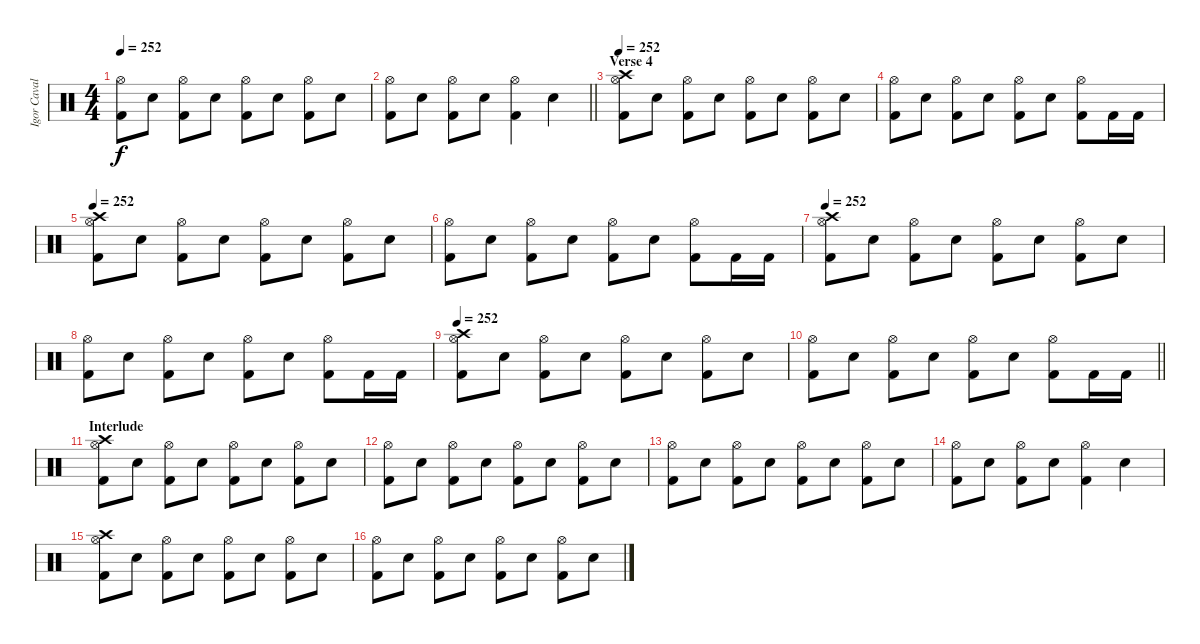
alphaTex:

\track ("Igor Cavalera" "Igor Caval") {instrument percussion}
\staff {score}
\articulation defaults
\ts (4 4)
\tempo 252
\clef neutral
\ks c
("Hi-Hat (open)" "Kick (hit) 2").8{dy f} "Electric Snare (hit)".8 ("Hi-Hat (open)" "Kick (hit) 2").8 "Electric Snare (hit)".8 ("Hi-Hat (open)" "Kick (hit) 2").8 "Electric Snare (hit)".8 ("Hi-Hat (open)" "Kick (hit) 2").8 "Electric Snare (hit)".8 |
\barLineRight lightlight
("Hi-Hat (open)" "Kick (hit) 2").8 "Electric Snare (hit)".8 ("Hi-Hat (open)" "Kick (hit) 2").8 "Electric Snare (hit)".8 ("Hi-Hat (open)" "Kick (hit) 2").4 "Electric Snare (hit)".4 |
\section ("" "Verse 4")
\tempo 252
("Crash high (hit)" "Hi-Hat (open)" "Kick (hit) 2").8 "Electric Snare (hit)".8 ("Hi-Hat (open)" "Kick (hit) 2").8 "Electric Snare (hit)".8 ("Hi-Hat (open)" "Kick (hit) 2").8 "Electric Snare (hit)".8 ("Hi-Hat (open)" "Kick (hit) 2").8 "Electric Snare (hit)".8 |
("Hi-Hat (open)" "Kick (hit) 2").8 "Electric Snare (hit)".8 ("Hi-Hat (open)" "Kick (hit) 2").8 "Electric Snare (hit)".8 ("Hi-Hat (open)" "Kick (hit) 2").8 "Electric Snare (hit)".8 ("Hi-Hat (open)" "Kick (hit) 2").8 "Kick (hit) 2".16 "Kick (hit) 2".16 |
\tempo 252
("Crash high (hit)" "Hi-Hat (open)" "Kick (hit) 2").8 "Electric Snare (hit)".8 ("Hi-Hat (open)" "Kick (hit) 2").8 "Electric Snare (hit)".8 ("Hi-Hat (open)" "Kick (hit) 2").8 "Electric Snare (hit)".8 ("Hi-Hat (open)" "Kick (hit) 2").8 "Electric Snare (hit)".8 |
("Hi-Hat (open)" "Kick (hit) 2").8 "Electric Snare (hit)".8 ("Hi-Hat (open)" "Kick (hit) 2").8 "Electric Snare (hit)".8 ("Hi-Hat (open)" "Kick (hit) 2").8 "Electric Snare (hit)".8 ("Hi-Hat (open)" "Kick (hit) 2").8 "Kick (hit) 2".16 "Kick (hit) 2".16 |
\tempo 252
("Crash high (hit)" "Hi-Hat (open)" "Kick (hit) 2").8 "Electric Snare (hit)".8 ("Hi-Hat (open)" "Kick (hit) 2").8 "Electric Snare (hit)".8 ("Hi-Hat (open)" "Kick (hit) 2").8 "Electric Snare (hit)".8 ("Hi-Hat (open)" "Kick (hit) 2").8 "Electric Snare (hit)".8 |
("Hi-Hat (open)" "Kick (hit) 2").8 "Electric Snare (hit)".8 ("Hi-Hat (open)" "Kick (hit) 2").8 "Electric Snare (hit)".8 ("Hi-Hat (open)" "Kick (hit) 2").8 "Electric Snare (hit)".8 ("Hi-Hat (open)" "Kick (hit) 2").8 "Kick (hit) 2".16 "Kick (hit) 2".16 |
\tempo 252
("Crash high (hit)" "Hi-Hat (open)" "Kick (hit) 2").8 "Electric Snare (hit)".8 ("Hi-Hat (open)" "Kick (hit) 2").8 "Electric Snare (hit)".8 ("Hi-Hat (open)" "Kick (hit) 2").8 "Electric Snare (hit)".8 ("Hi-Hat (open)" "Kick (hit) 2").8 "Electric Snare (hit)".8 |
\barLineRight lightlight
("Hi-Hat (open)" "Kick (hit) 2").8 "Electric Snare (hit)".8 ("Hi-Hat (open)" "Kick (hit) 2").8 "Electric Snare (hit)".8 ("Hi-Hat (open)" "Kick (hit) 2").8 "Electric Snare (hit)".8 ("Hi-Hat (open)" "Kick (hit) 2").8 "Kick (hit) 2".16 "Kick (hit) 2".16 |
\section ("" "Interlude")
("Crash high (hit)" "Hi-Hat (open)" "Kick (hit) 2").8 "Electric Snare (hit)".8 ("Hi-Hat (open)" "Kick (hit) 2").8 "Electric Snare (hit)".8 ("Hi-Hat (open)" "Kick (hit) 2").8 "Electric Snare (hit)".8 ("Hi-Hat (open)" "Kick (hit) 2").8 "Electric Snare (hit)".8 |
("Hi-Hat (open)" "Kick (hit) 2").8 "Electric Snare (hit)".8 ("Hi-Hat (open)" "Kick (hit) 2").8 "Electric Snare (hit)".8 ("Hi-Hat (open)" "Kick (hit) 2").8 "Electric Snare (hit)".8 ("Hi-Hat (open)" "Kick (hit) 2").8 "Electric Snare (hit)".8 |
("Hi-Hat (open)" "Kick (hit) 2").8 "Electric Snare (hit)".8 ("Hi-Hat (open)" "Kick (hit) 2").8 "Electric Snare (hit)".8 ("Hi-Hat (open)" "Kick (hit) 2").8 "Electric Snare (hit)".8 ("Hi-Hat (open)" "Kick (hit) 2").8 "Electric Snare (hit)".8 |
("Hi-Hat (open)" "Kick (hit) 2").8 "Electric Snare (hit)".8 ("Hi-Hat (open)" "Kick (hit) 2").8 "Electric Snare (hit)".8 ("Hi-Hat (open)" "Kick (hit) 2").4 "Electric Snare (hit)".4 |
("Crash high (hit)" "Hi-Hat (open)" "Kick (hit) 2").8 "Electric Snare (hit)".8 ("Hi-Hat (open)" "Kick (hit) 2").8 "Electric Snare (hit)".8 ("Hi-Hat (open)" "Kick (hit) 2").8 "Electric Snare (hit)".8 ("Hi-Hat (open)" "Kick (hit) 2").8 "Electric Snare (hit)".8 |
("Hi-Hat (open)" "Kick (hit) 2").8 "Electric Snare (hit)".8 ("Hi-Hat (open)" "Kick (hit) 2").8 "Electric Snare (hit)".8 ("Hi-Hat (open)" "Kick (hit) 2").8 "Electric Snare (hit)".8 ("Hi-Hat (open)" "Kick (hit) 2").8 "Electric Snare (hit)".8
